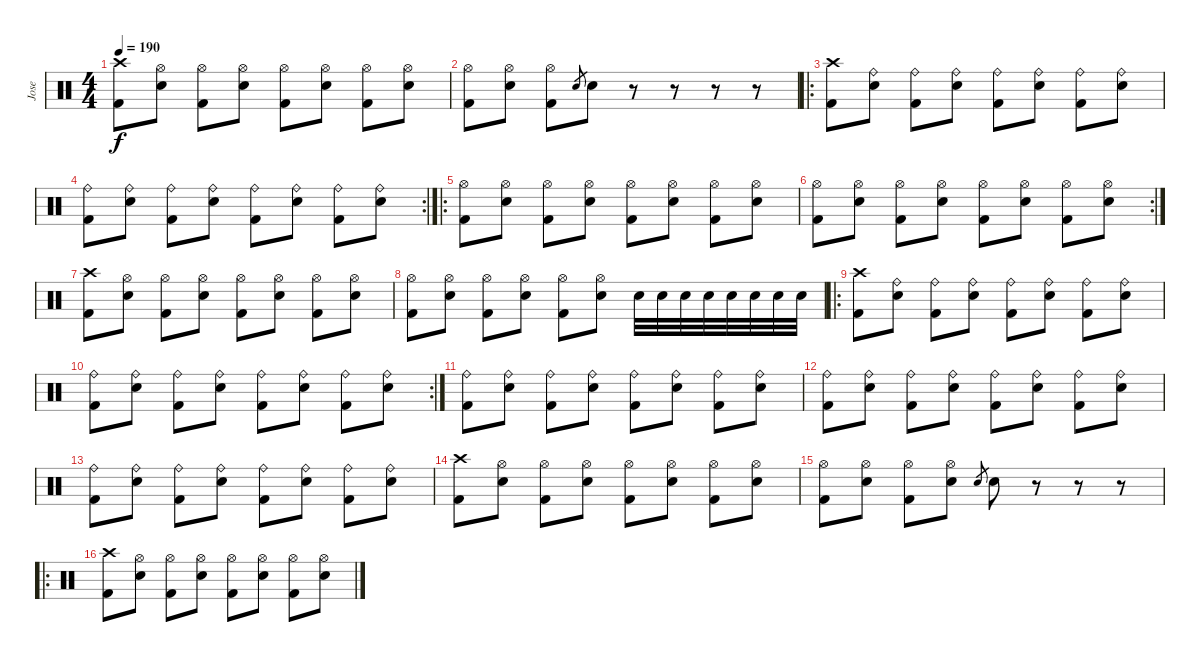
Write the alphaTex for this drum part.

\track ("Jose" "Jose") {instrument percussion}
\staff {score}
\articulation defaults
\ts (4 4)
\tempo 190
\clef neutral
\ks c
("Crash high (hit)" "Kick (hit) 2").8{dy f} ("Hi-Hat (open)" "Electric Snare (hit)").8 ("Hi-Hat (open)" "Kick (hit) 2").8 ("Hi-Hat (open)" "Electric Snare (hit)").8 ("Hi-Hat (open)" "Kick (hit) 2").8 ("Hi-Hat (open)" "Electric Snare (hit)").8 ("Hi-Hat (open)" "Kick (hit) 2").8 ("Hi-Hat (open)" "Electric Snare (hit)").8 |
("Hi-Hat (open)" "Kick (hit) 2").8 ("Hi-Hat (open)" "Electric Snare (hit)").8 ("Hi-Hat (open)" "Kick (hit) 2").8 "Electric Snare (hit)".8{gr} "Electric Snare (hit)".8 r.8 r.8 r.8 r.8 |
\ro
("Crash high (hit)" "Kick (hit) 2").8 ("Ride (bell)" "Electric Snare (hit)").8 ("Ride (bell)" "Kick (hit) 2").8 ("Ride (bell)" "Electric Snare (hit)").8 ("Ride (bell)" "Kick (hit) 2").8 ("Ride (bell)" "Electric Snare (hit)").8 ("Ride (bell)" "Kick (hit) 2").8 ("Ride (bell)" "Electric Snare (hit)").8 |
\rc 2
("Ride (bell)" "Kick (hit) 2").8 ("Ride (bell)" "Electric Snare (hit)").8 ("Ride (bell)" "Kick (hit) 2").8 ("Ride (bell)" "Electric Snare (hit)").8 ("Ride (bell)" "Kick (hit) 2").8 ("Ride (bell)" "Electric Snare (hit)").8 ("Ride (bell)" "Kick (hit) 2").8 ("Ride (bell)" "Electric Snare (hit)").8 |
\ro
("Hi-Hat (open)" "Kick (hit) 2").8 ("Hi-Hat (open)" "Electric Snare (hit)").8 ("Hi-Hat (open)" "Kick (hit) 2").8 ("Hi-Hat (open)" "Electric Snare (hit)").8 ("Hi-Hat (open)" "Kick (hit) 2").8 ("Hi-Hat (open)" "Electric Snare (hit)").8 ("Hi-Hat (open)" "Kick (hit) 2").8 ("Hi-Hat (open)" "Electric Snare (hit)").8 |
\rc 2
("Hi-Hat (open)" "Kick (hit) 2").8 ("Hi-Hat (open)" "Electric Snare (hit)").8 ("Hi-Hat (open)" "Kick (hit) 2").8 ("Hi-Hat (open)" "Electric Snare (hit)").8 ("Hi-Hat (open)" "Kick (hit) 2").8 ("Hi-Hat (open)" "Electric Snare (hit)").8 ("Hi-Hat (open)" "Kick (hit) 2").8 ("Hi-Hat (open)" "Electric Snare (hit)").8 |
("Crash high (hit)" "Kick (hit) 2").8 ("Hi-Hat (open)" "Electric Snare (hit)").8 ("Hi-Hat (open)" "Kick (hit) 2").8 ("Hi-Hat (open)" "Electric Snare (hit)").8 ("Hi-Hat (open)" "Kick (hit) 2").8 ("Hi-Hat (open)" "Electric Snare (hit)").8 ("Hi-Hat (open)" "Kick (hit) 2").8 ("Hi-Hat (open)" "Electric Snare (hit)").8 |
("Hi-Hat (open)" "Kick (hit) 2").8 ("Hi-Hat (open)" "Electric Snare (hit)").8 ("Hi-Hat (open)" "Kick (hit) 2").8 ("Hi-Hat (open)" "Electric Snare (hit)").8 ("Hi-Hat (open)" "Kick (hit) 2").8 ("Hi-Hat (open)" "Electric Snare (hit)").8 "Electric Snare (hit)".32 "Electric Snare (hit)".32 "Electric Snare (hit)".32 "Electric Snare (hit)".32 "Electric Snare (hit)".32 "Electric Snare (hit)".32 "Electric Snare (hit)".32 "Electric Snare (hit)".32 |
\ro
("Crash high (hit)" "Kick (hit) 2").8 ("Ride (bell)" "Electric Snare (hit)").8 ("Ride (bell)" "Kick (hit) 2").8 ("Ride (bell)" "Electric Snare (hit)").8 ("Ride (bell)" "Kick (hit) 2").8 ("Ride (bell)" "Electric Snare (hit)").8 ("Ride (bell)" "Kick (hit) 2").8 ("Ride (bell)" "Electric Snare (hit)").8 |
\rc 2
("Ride (bell)" "Kick (hit) 2").8 ("Ride (bell)" "Electric Snare (hit)").8 ("Ride (bell)" "Kick (hit) 2").8 ("Ride (bell)" "Electric Snare (hit)").8 ("Ride (bell)" "Kick (hit) 2").8 ("Ride (bell)" "Electric Snare (hit)").8 ("Ride (bell)" "Kick (hit) 2").8 ("Ride (bell)" "Electric Snare (hit)").8 |
("Ride (bell)" "Kick (hit) 2").8 ("Ride (bell)" "Electric Snare (hit)").8 ("Ride (bell)" "Kick (hit) 2").8 ("Ride (bell)" "Electric Snare (hit)").8 ("Ride (bell)" "Kick (hit) 2").8 ("Ride (bell)" "Electric Snare (hit)").8 ("Ride (bell)" "Kick (hit) 2").8 ("Ride (bell)" "Electric Snare (hit)").8 |
("Ride (bell)" "Kick (hit) 2").8 ("Ride (bell)" "Electric Snare (hit)").8 ("Ride (bell)" "Kick (hit) 2").8 ("Ride (bell)" "Electric Snare (hit)").8 ("Ride (bell)" "Kick (hit) 2").8 ("Ride (bell)" "Electric Snare (hit)").8 ("Ride (bell)" "Kick (hit) 2").8 ("Ride (bell)" "Electric Snare (hit)").8 |
("Ride (bell)" "Kick (hit) 2").8 ("Ride (bell)" "Electric Snare (hit)").8 ("Ride (bell)" "Kick (hit) 2").8 ("Ride (bell)" "Electric Snare (hit)").8 ("Ride (bell)" "Kick (hit) 2").8 ("Ride (bell)" "Electric Snare (hit)").8 ("Ride (bell)" "Kick (hit) 2").8 ("Ride (bell)" "Electric Snare (hit)").8 |
("Crash high (hit)" "Kick (hit) 2").8 ("Hi-Hat (open)" "Electric Snare (hit)").8 ("Hi-Hat (open)" "Kick (hit) 2").8 ("Hi-Hat (open)" "Electric Snare (hit)").8 ("Hi-Hat (open)" "Kick (hit) 2").8 ("Hi-Hat (open)" "Electric Snare (hit)").8 ("Hi-Hat (open)" "Kick (hit) 2").8 ("Hi-Hat (open)" "Electric Snare (hit)").8 |
("Hi-Hat (open)" "Kick (hit) 2").8 ("Hi-Hat (open)" "Electric Snare (hit)").8 ("Hi-Hat (open)" "Kick (hit) 2").8 ("Hi-Hat (open)" "Electric Snare (hit)").8 "Electric Snare (hit)".8{gr} "Electric Snare (hit)".8 r.8 r.8 r.8 |
\ro
("Crash high (hit)" "Kick (hit) 2").8 ("Hi-Hat (open)" "Electric Snare (hit)").8 ("Hi-Hat (open)" "Kick (hit) 2").8 ("Hi-Hat (open)" "Electric Snare (hit)").8 ("Hi-Hat (open)" "Kick (hit) 2").8 ("Hi-Hat (open)" "Electric Snare (hit)").8 ("Hi-Hat (open)" "Kick (hit) 2").8 ("Hi-Hat (open)" "Electric Snare (hit)").8
